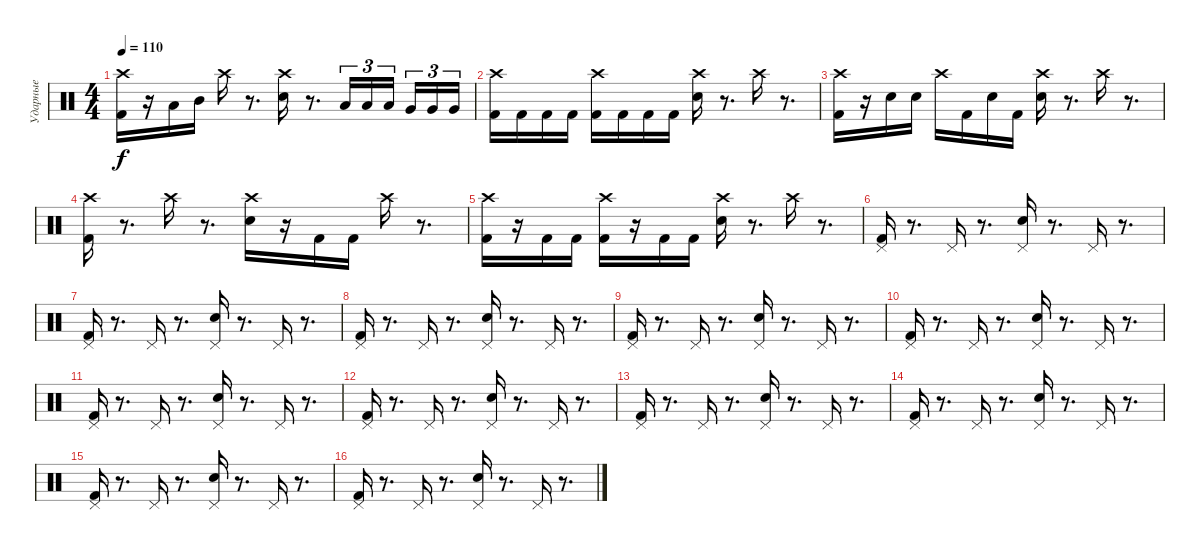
\track ("Ударные" "Ударные") {instrument percussion}
\staff {score}
\articulation defaults
\ts (4 4)
\tempo 110
\clef neutral
\ks c
("Crash high (hit)" "Kick (hit) 2").16{dy f} r.16 "Low Tom (hit)".16 "Mid Tom (hit)".16 "Crash high (hit)".16 r.8{d} ("Crash high (hit)" "Electric Snare (hit)").16 r.8{d} "Low Tom (hit)".16{tu (3 2)} "Low Tom (hit)".16{tu (3 2)} "Low Tom (hit)".16{tu (3 2) beam splitsecondary} "Very Low Tom (hit)".16{tu (3 2)} "Very Low Tom (hit)".16{tu (3 2)} "Very Low Tom (hit)".16{tu (3 2)} |
("Crash high (hit)" "Kick (hit) 2").16 "Kick (hit) 2".16 "Kick (hit) 2".16 "Kick (hit) 2".16 ("Crash high (hit)" "Kick (hit) 2").16 "Kick (hit) 2".16 "Kick (hit) 2".16 "Kick (hit) 2".16 ("Crash high (hit)" "Electric Snare (hit)").16 r.8{d} "Crash high (hit)".16 r.8{d} |
("Crash high (hit)" "Kick (hit) 2").16 r.16 "Electric Snare (hit)".16 "Electric Snare (hit)".16 "Crash high (hit)".16 "Kick (hit) 2".16 "Electric Snare (hit)".16 "Kick (hit) 2".16 ("Crash high (hit)" "Electric Snare (hit)").16 r.8{d} "Crash high (hit)".16 r.8{d} |
("Crash high (hit)" "Kick (hit) 2").16 r.8{d} "Crash high (hit)".16 r.8{d} ("Crash high (hit)" "Electric Snare (hit)").16 r.16 "Kick (hit) 2".16 "Kick (hit) 2".16 "Crash high (hit)".16 r.8{d} |
("Crash high (hit)" "Kick (hit) 2").16 r.16 "Kick (hit) 2".16 "Kick (hit) 2".16 ("Crash high (hit)" "Kick (hit) 2").16 r.16 "Kick (hit) 2".16 "Kick (hit) 2".16 ("Crash high (hit)" "Electric Snare (hit)").16 r.8{d} "Crash high (hit)".16 r.8{d} |
("Pedal Hi-Hat (hit)" "Kick (hit) 2").16 r.8{d} "Pedal Hi-Hat (hit)".16 r.8{d} ("Pedal Hi-Hat (hit)" "Electric Snare (hit)").16 r.8{d} "Pedal Hi-Hat (hit)".16 r.8{d} |
("Pedal Hi-Hat (hit)" "Kick (hit) 2").16 r.8{d} "Pedal Hi-Hat (hit)".16 r.8{d} ("Pedal Hi-Hat (hit)" "Electric Snare (hit)").16 r.8{d} "Pedal Hi-Hat (hit)".16 r.8{d} |
("Pedal Hi-Hat (hit)" "Kick (hit) 2").16 r.8{d} "Pedal Hi-Hat (hit)".16 r.8{d} ("Pedal Hi-Hat (hit)" "Electric Snare (hit)").16 r.8{d} "Pedal Hi-Hat (hit)".16 r.8{d} |
("Pedal Hi-Hat (hit)" "Kick (hit) 2").16 r.8{d} "Pedal Hi-Hat (hit)".16 r.8{d} ("Pedal Hi-Hat (hit)" "Electric Snare (hit)").16 r.8{d} "Pedal Hi-Hat (hit)".16 r.8{d} |
("Pedal Hi-Hat (hit)" "Kick (hit) 2").16 r.8{d} "Pedal Hi-Hat (hit)".16 r.8{d} ("Pedal Hi-Hat (hit)" "Electric Snare (hit)").16 r.8{d} "Pedal Hi-Hat (hit)".16 r.8{d} |
("Pedal Hi-Hat (hit)" "Kick (hit) 2").16 r.8{d} "Pedal Hi-Hat (hit)".16 r.8{d} ("Pedal Hi-Hat (hit)" "Electric Snare (hit)").16 r.8{d} "Pedal Hi-Hat (hit)".16 r.8{d} |
("Pedal Hi-Hat (hit)" "Kick (hit) 2").16 r.8{d} "Pedal Hi-Hat (hit)".16 r.8{d} ("Pedal Hi-Hat (hit)" "Electric Snare (hit)").16 r.8{d} "Pedal Hi-Hat (hit)".16 r.8{d} |
("Pedal Hi-Hat (hit)" "Kick (hit) 2").16 r.8{d} "Pedal Hi-Hat (hit)".16 r.8{d} ("Pedal Hi-Hat (hit)" "Electric Snare (hit)").16 r.8{d} "Pedal Hi-Hat (hit)".16 r.8{d} |
("Pedal Hi-Hat (hit)" "Kick (hit) 2").16 r.8{d} "Pedal Hi-Hat (hit)".16 r.8{d} ("Pedal Hi-Hat (hit)" "Electric Snare (hit)").16 r.8{d} "Pedal Hi-Hat (hit)".16 r.8{d} |
("Pedal Hi-Hat (hit)" "Kick (hit) 2").16 r.8{d} "Pedal Hi-Hat (hit)".16 r.8{d} ("Pedal Hi-Hat (hit)" "Electric Snare (hit)").16 r.8{d} "Pedal Hi-Hat (hit)".16 r.8{d} |
("Pedal Hi-Hat (hit)" "Kick (hit) 2").16 r.8{d} "Pedal Hi-Hat (hit)".16 r.8{d} ("Pedal Hi-Hat (hit)" "Electric Snare (hit)").16 r.8{d} "Pedal Hi-Hat (hit)".16 r.8{d}
